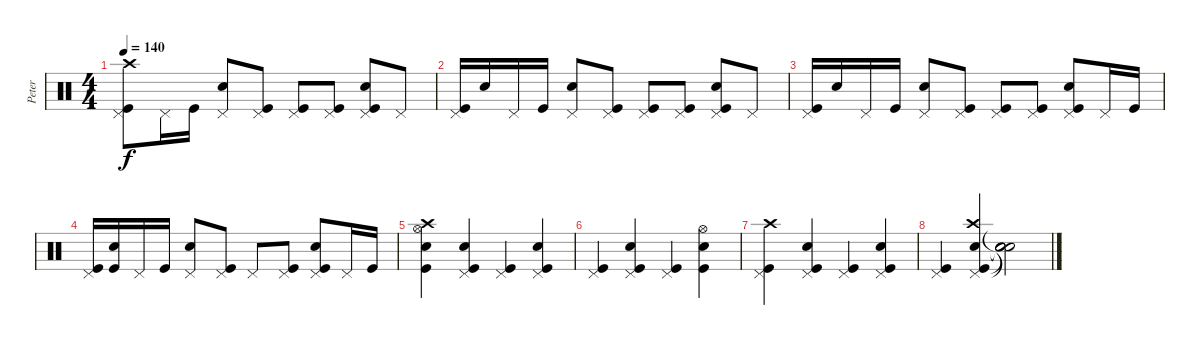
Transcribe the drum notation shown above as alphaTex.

\track ("Peter" "Peter") {instrument percussion}
\staff {score}
\articulation defaults
\ts (4 4)
\tempo 140
\clef neutral
\ks c
("Kick (hit)" "Pedal Hi-Hat (hit)" "Crash high (hit)").8{dy f} "Pedal Hi-Hat (hit)".16 "Kick (hit)".16 ("Electric Snare (hit)" "Pedal Hi-Hat (hit)").8 ("Pedal Hi-Hat (hit)" "Kick (hit)").8 ("Pedal Hi-Hat (hit)" "Kick (hit)").8 ("Pedal Hi-Hat (hit)" "Kick (hit)").8 ("Pedal Hi-Hat (hit)" "Kick (hit)" "Electric Snare (hit)").8 "Pedal Hi-Hat (hit)".8 |
("Kick (hit)" "Pedal Hi-Hat (hit)").16 "Electric Snare (hit)".16 "Pedal Hi-Hat (hit)".16 "Kick (hit)".16 ("Electric Snare (hit)" "Pedal Hi-Hat (hit)").8 ("Pedal Hi-Hat (hit)" "Kick (hit)").8 ("Pedal Hi-Hat (hit)" "Kick (hit)").8 ("Kick (hit)" "Pedal Hi-Hat (hit)").8 ("Pedal Hi-Hat (hit)" "Kick (hit)" "Electric Snare (hit)").8 "Pedal Hi-Hat (hit)".8 |
("Pedal Hi-Hat (hit)" "Kick (hit)").16 "Electric Snare (hit)".16 "Pedal Hi-Hat (hit)".16 "Kick (hit)".16 ("Electric Snare (hit)" "Pedal Hi-Hat (hit)").8 ("Kick (hit)" "Pedal Hi-Hat (hit)").8 ("Pedal Hi-Hat (hit)" "Kick (hit)").8 ("Pedal Hi-Hat (hit)" "Kick (hit)").8 ("Kick (hit)" "Pedal Hi-Hat (hit)" "Electric Snare (hit)").8 "Pedal Hi-Hat (hit)".16 "Kick (hit)".16 |
("Kick (hit)" "Pedal Hi-Hat (hit)").16 ("Kick (hit)" "Electric Snare (hit)").16 "Pedal Hi-Hat (hit)".16 "Kick (hit)".16 ("Pedal Hi-Hat (hit)" "Electric Snare (hit)").8 ("Pedal Hi-Hat (hit)" "Kick (hit)").8 "Pedal Hi-Hat (hit)".8 ("Pedal Hi-Hat (hit)" "Kick (hit)").8 ("Pedal Hi-Hat (hit)" "Electric Snare (hit)" "Kick (hit)").8 "Pedal Hi-Hat (hit)".16 "Kick (hit)".16 |
("Snare (hit) 2" "Hi-Hat (open)" "Kick (hit)" "Crash high (hit)").4 ("Pedal Hi-Hat (hit)" "Snare (hit) 2" "Kick (hit)").4 ("Pedal Hi-Hat (hit)" "Kick (hit)").4 ("Kick (hit)" "Snare (hit) 2" "Pedal Hi-Hat (hit)").4 |
("Kick (hit)" "Pedal Hi-Hat (hit)").4 ("Pedal Hi-Hat (hit)" "Snare (hit) 2" "Kick (hit)").4 ("Pedal Hi-Hat (hit)" "Kick (hit)").4 ("Snare (hit) 2" "Hi-Hat (open)" "Kick (hit)").4 |
("Crash high (hit)" "Kick (hit)" "Pedal Hi-Hat (hit)").4 ("Kick (hit)" "Snare (hit) 2" "Pedal Hi-Hat (hit)").4 ("Kick (hit)" "Pedal Hi-Hat (hit)").4 ("Pedal Hi-Hat (hit)" "Kick (hit)" "Snare (hit) 2").4 |
("Pedal Hi-Hat (hit)" "Kick (hit)").4 ("Pedal Hi-Hat (hit)" "Snare (hit) 2" "Kick (hit)" "Crash high (hit)").4 ("Snare (hit)"{t} "Snare (hit)"{t} "Snare (hit)"{t} "Snare (hit)"{t}).2
